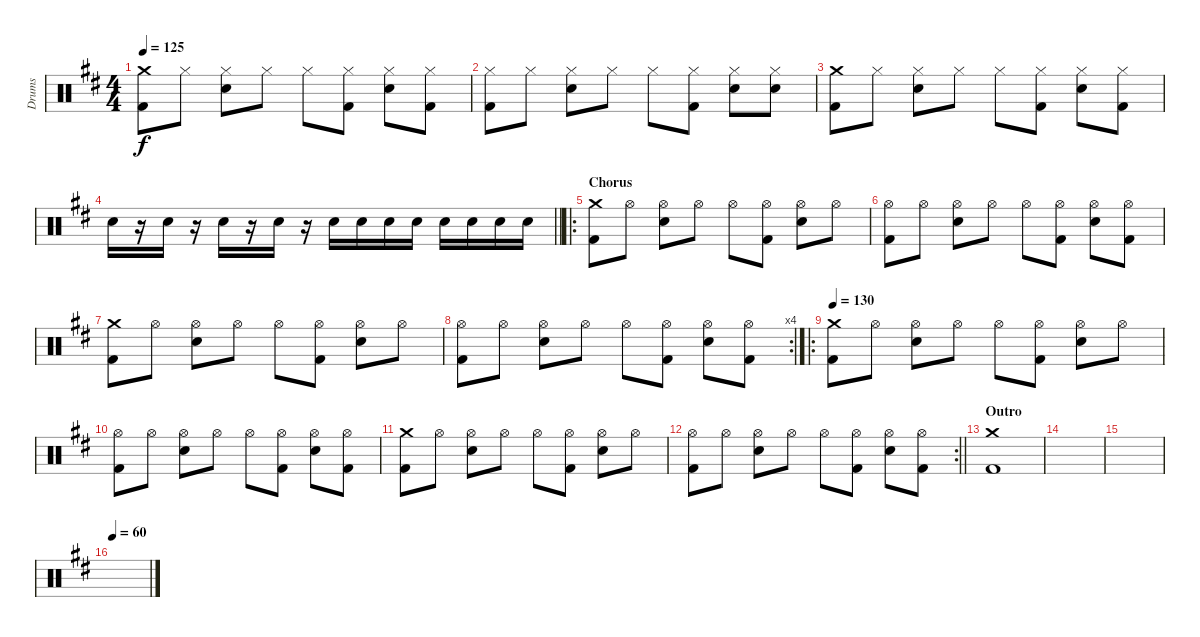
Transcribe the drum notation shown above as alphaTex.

\track ("Drums" "Drums") {instrument percussion}
\staff {score}
\articulation defaults
\ts (4 4)
\tempo 125
\clef neutral
\ks d
("Crash medium (hit)" "Kick (hit) 2").8{dy f} "Hi-Hat (closed)".8 ("Hi-Hat (closed)" "Snare (hit) 2").8 "Hi-Hat (closed)".8 "Hi-Hat (closed)".8 ("Hi-Hat (closed)" "Kick (hit) 2").8 ("Hi-Hat (closed)" "Snare (hit) 2").8 ("Hi-Hat (closed)" "Kick (hit) 2").8 |
("Hi-Hat (closed)" "Kick (hit) 2").8 "Hi-Hat (closed)".8 ("Hi-Hat (closed)" "Snare (hit) 2").8 "Hi-Hat (closed)".8 "Hi-Hat (closed)".8 ("Hi-Hat (closed)" "Kick (hit) 2").8 ("Hi-Hat (closed)" "Snare (hit) 2").8 ("Hi-Hat (closed)" "Snare (hit) 2").8 |
("Crash medium (hit)" "Kick (hit) 2").8 "Hi-Hat (closed)".8 ("Hi-Hat (closed)" "Snare (hit) 2").8 "Hi-Hat (closed)".8 "Hi-Hat (closed)".8 ("Hi-Hat (closed)" "Kick (hit) 2").8 ("Hi-Hat (closed)" "Snare (hit) 2").8 ("Hi-Hat (closed)" "Kick (hit) 2").8 |
\barLineRight lightlight "Snare (hit) 2".16
r.16 "Snare (hit) 2".16 r.16 "Snare (hit) 2".16 r.16 "Snare (hit) 2".16 r.16 "Snare (hit) 2".16 "Snare (hit) 2".16 "Snare (hit) 2".16 "Snare (hit) 2".16 "Snare (hit) 2".16 "Snare (hit) 2".16 "Snare (hit) 2".16 "Snare (hit) 2".16 |
\ro
\section ("" "Chorus")
("Crash medium (hit)" "Kick (hit) 2").8 "Hi-Hat (open)".8 ("Hi-Hat (open)" "Snare (hit) 2").8 "Hi-Hat (open)".8 "Hi-Hat (open)".8 ("Hi-Hat (open)" "Kick (hit) 2").8 ("Hi-Hat (open)" "Snare (hit) 2").8 "Hi-Hat (open)".8 |
("Hi-Hat (open)" "Kick (hit) 2").8 "Hi-Hat (open)".8 ("Hi-Hat (open)" "Snare (hit) 2").8 "Hi-Hat (open)".8 "Hi-Hat (open)".8 ("Hi-Hat (open)" "Kick (hit) 2").8 ("Hi-Hat (open)" "Snare (hit) 2").8 ("Hi-Hat (open)" "Kick (hit) 2").8 |
("Crash medium (hit)" "Kick (hit) 2").8 "Hi-Hat (open)".8 ("Hi-Hat (open)" "Snare (hit) 2").8 "Hi-Hat (open)".8 "Hi-Hat (open)".8 ("Hi-Hat (open)" "Kick (hit) 2").8 ("Hi-Hat (open)" "Snare (hit) 2").8 "Hi-Hat (open)".8 |
\rc 4
("Hi-Hat (open)" "Kick (hit) 2").8 "Hi-Hat (open)".8 ("Hi-Hat (open)" "Snare (hit) 2").8 "Hi-Hat (open)".8 "Hi-Hat (open)".8 ("Hi-Hat (open)" "Kick (hit) 2").8 ("Hi-Hat (open)" "Snare (hit) 2").8 ("Hi-Hat (open)" "Kick (hit) 2").8 |
\ro
\tempo 130
("Crash medium (hit)" "Kick (hit) 2").8 "Hi-Hat (open)".8 ("Hi-Hat (open)" "Snare (hit) 2").8 "Hi-Hat (open)".8 "Hi-Hat (open)".8 ("Hi-Hat (open)" "Kick (hit) 2").8 ("Hi-Hat (open)" "Snare (hit) 2").8 "Hi-Hat (open)".8 |
("Hi-Hat (open)" "Kick (hit) 2").8 "Hi-Hat (open)".8 ("Hi-Hat (open)" "Snare (hit) 2").8 "Hi-Hat (open)".8 "Hi-Hat (open)".8 ("Hi-Hat (open)" "Kick (hit) 2").8 ("Hi-Hat (open)" "Snare (hit) 2").8 ("Hi-Hat (open)" "Kick (hit) 2").8 |
("Crash medium (hit)" "Kick (hit) 2").8 "Hi-Hat (open)".8 ("Hi-Hat (open)" "Snare (hit) 2").8 "Hi-Hat (open)".8 "Hi-Hat (open)".8 ("Hi-Hat (open)" "Kick (hit) 2").8 ("Hi-Hat (open)" "Snare (hit) 2").8 "Hi-Hat (open)".8 |
\rc 2
\barLineRight lightlight
("Hi-Hat (open)" "Kick (hit) 2").8 "Hi-Hat (open)".8 ("Hi-Hat (open)" "Snare (hit) 2").8 "Hi-Hat (open)".8 "Hi-Hat (open)".8 ("Hi-Hat (open)" "Kick (hit) 2").8 ("Hi-Hat (open)" "Snare (hit) 2").8 ("Hi-Hat (open)" "Kick (hit) 2").8 |
\section ("" "Outro")
("Crash medium (hit)" "Kick (hit) 2").1 |
|
|
\tempo 60
